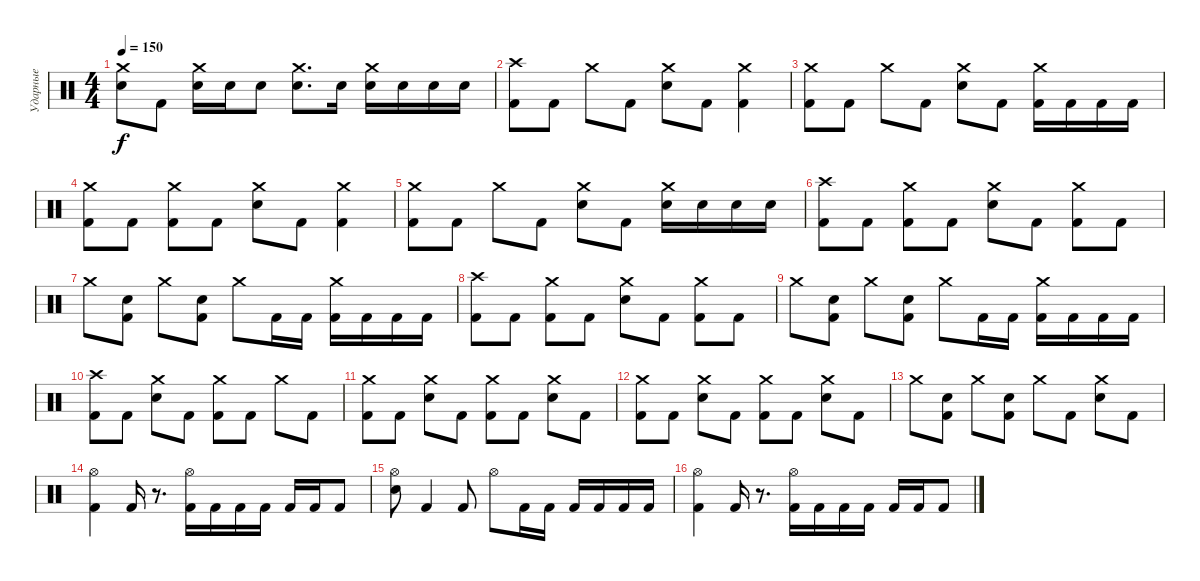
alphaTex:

\track ("Ударные" "Ударные") {instrument percussion}
\staff {score}
\articulation defaults
\ts (4 4)
\tempo 150
\clef neutral
\ks c
("Crash medium (hit)" "Electric Snare (hit)").8{dy f} "Kick (hit) 2".8 ("Crash medium (hit)" "Electric Snare (hit)").16 "Electric Snare (hit)".16 "Electric Snare (hit)".8 ("Crash medium (hit)" "Electric Snare (hit)").8{d} "Electric Snare (hit)".16 ("Crash medium (hit)" "Electric Snare (hit)").16 "Electric Snare (hit)".16 "Electric Snare (hit)".16 "Electric Snare (hit)".16 |
("Crash high (hit)" "Kick (hit) 2").8 "Kick (hit) 2".8 "Crash medium (hit)".8 "Kick (hit) 2".8 ("Crash medium (hit)" "Electric Snare (hit)").8 "Kick (hit) 2".8 ("Crash medium (hit)" "Kick (hit) 2").4 |
("Crash medium (hit)" "Kick (hit) 2").8 "Kick (hit) 2".8 "Crash medium (hit)".8 "Kick (hit) 2".8 ("Crash medium (hit)" "Electric Snare (hit)").8 "Kick (hit) 2".8 ("Crash medium (hit)" "Kick (hit) 2").16 "Kick (hit) 2".16 "Kick (hit) 2".16 "Kick (hit) 2".16 |
("Crash medium (hit)" "Kick (hit) 2").8 "Kick (hit) 2".8 ("Crash medium (hit)" "Kick (hit) 2").8 "Kick (hit) 2".8 ("Crash medium (hit)" "Electric Snare (hit)").8 "Kick (hit) 2".8 ("Crash medium (hit)" "Kick (hit) 2").4 |
("Crash medium (hit)" "Kick (hit) 2").8 "Kick (hit) 2".8 "Crash medium (hit)".8 "Kick (hit) 2".8 ("Crash medium (hit)" "Electric Snare (hit)").8 "Kick (hit) 2".8 ("Crash medium (hit)" "Electric Snare (hit)").16 "Electric Snare (hit)".16 "Electric Snare (hit)".16 "Electric Snare (hit)".16 |
("Crash high (hit)" "Kick (hit) 2").8 "Kick (hit) 2".8 ("Crash medium (hit)" "Kick (hit) 2").8 "Kick (hit) 2".8 ("Crash medium (hit)" "Electric Snare (hit)").8 "Kick (hit) 2".8 ("Crash medium (hit)" "Kick (hit) 2").8 "Kick (hit) 2".8 |
"Crash medium (hit)".8 ("Electric Snare (hit)" "Kick (hit) 2").8 "Crash medium (hit)".8 ("Electric Snare (hit)" "Kick (hit) 2").8 "Crash medium (hit)".8 "Kick (hit) 2".16 "Kick (hit) 2".16 ("Crash medium (hit)" "Kick (hit) 2").16 "Kick (hit) 2".16 "Kick (hit) 2".16 "Kick (hit) 2".16 |
("Crash high (hit)" "Kick (hit) 2").8 "Kick (hit) 2".8 ("Crash medium (hit)" "Kick (hit) 2").8 "Kick (hit) 2".8 ("Crash medium (hit)" "Electric Snare (hit)").8 "Kick (hit) 2".8 ("Crash medium (hit)" "Kick (hit) 2").8 "Kick (hit) 2".8 |
"Crash medium (hit)".8 ("Electric Snare (hit)" "Kick (hit) 2").8 "Crash medium (hit)".8 ("Electric Snare (hit)" "Kick (hit) 2").8 "Crash medium (hit)".8 "Kick (hit) 2".16 "Kick (hit) 2".16 ("Crash medium (hit)" "Kick (hit) 2").16 "Kick (hit) 2".16 "Kick (hit) 2".16 "Kick (hit) 2".16 |
("Crash high (hit)" "Kick (hit) 2").8 "Kick (hit) 2".8 ("Crash medium (hit)" "Electric Snare (hit)").8 "Kick (hit) 2".8 ("Crash medium (hit)" "Kick (hit) 2").8 "Kick (hit) 2".8 "Crash medium (hit)".8 "Kick (hit) 2".8 |
("Crash medium (hit)" "Kick (hit) 2").8 "Kick (hit) 2".8 ("Crash medium (hit)" "Electric Snare (hit)").8 "Kick (hit) 2".8 ("Crash medium (hit)" "Kick (hit) 2").8 "Kick (hit) 2".8 ("Crash medium (hit)" "Electric Snare (hit)").8 "Kick (hit) 2".8 |
("Crash medium (hit)" "Kick (hit) 2").8 "Kick (hit) 2".8 ("Crash medium (hit)" "Electric Snare (hit)").8 "Kick (hit) 2".8 ("Crash medium (hit)" "Kick (hit) 2").8 "Kick (hit) 2".8 ("Crash medium (hit)" "Electric Snare (hit)").8 "Kick (hit) 2".8 |
"Crash medium (hit)".8 ("Electric Snare (hit)" "Kick (hit) 2").8 "Crash medium (hit)".8 ("Electric Snare (hit)" "Kick (hit) 2").8 "Crash medium (hit)".8 "Kick (hit) 2".8 ("Crash medium (hit)" "Electric Snare (hit)").8 "Kick (hit) 2".8 |
("Hi-Hat (open)" "Kick (hit) 2").4 "Kick (hit) 2".16 r.8{d} ("Hi-Hat (open)" "Kick (hit) 2").16 "Kick (hit) 2".16 "Kick (hit) 2".16 "Kick (hit) 2".16 "Kick (hit) 2".16 "Kick (hit) 2".16 "Kick (hit) 2".8 |
("Hi-Hat (open)" "Electric Snare (hit)").8 "Kick (hit) 2".4 "Kick (hit) 2".8 "Hi-Hat (open)".8 "Kick (hit) 2".16 "Kick (hit) 2".16 "Kick (hit) 2".16 "Kick (hit) 2".16 "Kick (hit) 2".16 "Kick (hit) 2".16 |
("Hi-Hat (open)" "Kick (hit) 2").4 "Kick (hit) 2".16 r.8{d} ("Hi-Hat (open)" "Kick (hit) 2").16 "Kick (hit) 2".16 "Kick (hit) 2".16 "Kick (hit) 2".16 "Kick (hit) 2".16 "Kick (hit) 2".16 "Kick (hit) 2".8
